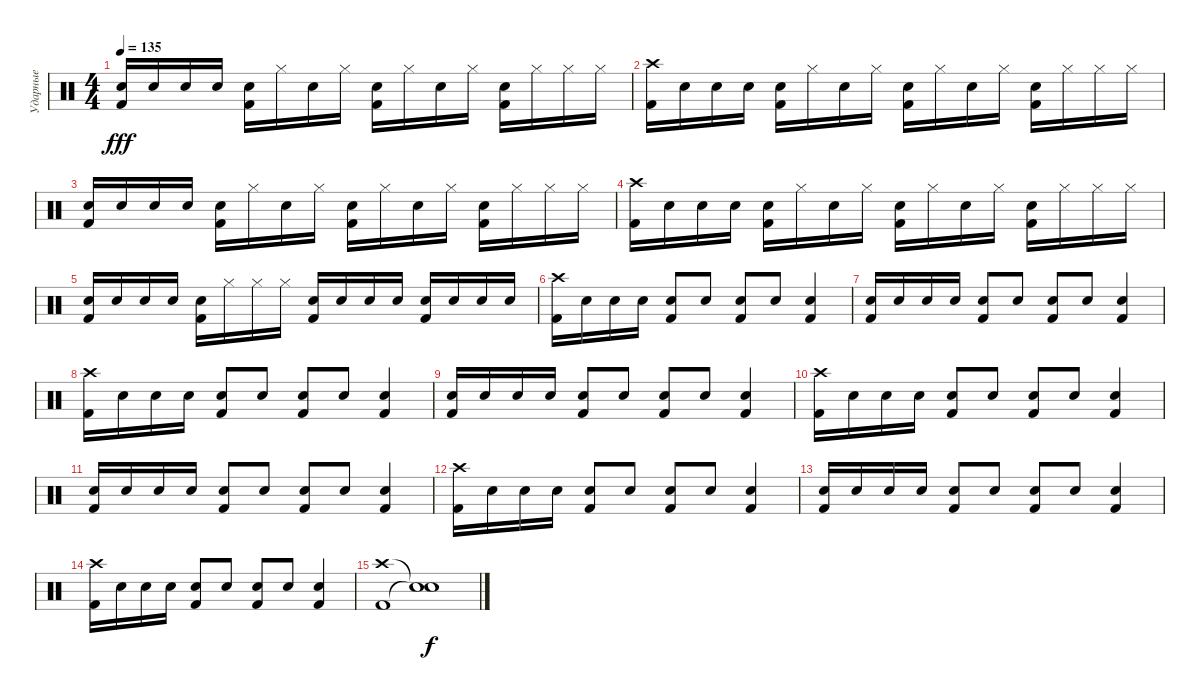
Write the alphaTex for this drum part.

\track ("Ударные" "Ударные") {instrument percussion}
\staff {score}
\articulation defaults
\ts (4 4)
\tempo 135
\clef neutral
\ks c
("Snare (hit) 2" "Kick (hit) 2").16{dy fff} "Snare (hit) 2".16 "Snare (hit) 2".16 "Snare (hit) 2".16 ("Snare (hit) 2" "Kick (hit) 2").16 "Hi-Hat (closed)".16 "Snare (hit) 2".16 "Hi-Hat (closed)".16 ("Snare (hit) 2" "Kick (hit) 2").16 "Hi-Hat (closed)".16 "Snare (hit) 2".16 "Hi-Hat (closed)".16 ("Snare (hit) 2" "Kick (hit) 2").16 "Hi-Hat (closed)".16 "Hi-Hat (closed)".16 "Hi-Hat (closed)".16 |
("Crash high (hit)" "Kick (hit) 2").16 "Snare (hit) 2".16 "Snare (hit) 2".16 "Snare (hit) 2".16 ("Snare (hit) 2" "Kick (hit) 2").16 "Hi-Hat (closed)".16 "Snare (hit) 2".16 "Hi-Hat (closed)".16 ("Snare (hit) 2" "Kick (hit) 2").16 "Hi-Hat (closed)".16 "Snare (hit) 2".16 "Hi-Hat (closed)".16 ("Snare (hit) 2" "Kick (hit) 2").16 "Hi-Hat (closed)".16 "Hi-Hat (closed)".16 "Hi-Hat (closed)".16 |
("Snare (hit) 2" "Kick (hit) 2").16 "Snare (hit) 2".16 "Snare (hit) 2".16 "Snare (hit) 2".16 ("Snare (hit) 2" "Kick (hit) 2").16 "Hi-Hat (closed)".16 "Snare (hit) 2".16 "Hi-Hat (closed)".16 ("Snare (hit) 2" "Kick (hit) 2").16 "Hi-Hat (closed)".16 "Snare (hit) 2".16 "Hi-Hat (closed)".16 ("Snare (hit) 2" "Kick (hit) 2").16 "Hi-Hat (closed)".16 "Hi-Hat (closed)".16 "Hi-Hat (closed)".16 |
("Crash high (hit)" "Kick (hit) 2").16 "Snare (hit) 2".16 "Snare (hit) 2".16 "Snare (hit) 2".16 ("Snare (hit) 2" "Kick (hit) 2").16 "Hi-Hat (closed)".16 "Snare (hit) 2".16 "Hi-Hat (closed)".16 ("Snare (hit) 2" "Kick (hit) 2").16 "Hi-Hat (closed)".16 "Snare (hit) 2".16 "Hi-Hat (closed)".16 ("Snare (hit) 2" "Kick (hit) 2").16 "Hi-Hat (closed)".16 "Hi-Hat (closed)".16 "Hi-Hat (closed)".16 |
("Snare (hit) 2" "Kick (hit) 2").16 "Snare (hit) 2".16 "Snare (hit) 2".16 "Snare (hit) 2".16 ("Snare (hit) 2" "Kick (hit) 2").16 "Hi-Hat (closed)".16 "Hi-Hat (closed)".16 "Hi-Hat (closed)".16 ("Snare (hit) 2" "Kick (hit) 2").16 "Snare (hit) 2".16 "Snare (hit) 2".16 "Snare (hit) 2".16 ("Snare (hit) 2" "Kick (hit) 2").16 "Snare (hit) 2".16 "Snare (hit) 2".16 "Snare (hit) 2".16 |
("Crash high (hit)" "Kick (hit) 2").16 "Snare (hit) 2".16 "Snare (hit) 2".16 "Snare (hit) 2".16 ("Snare (hit) 2" "Kick (hit) 2").8 "Snare (hit) 2".8 ("Snare (hit) 2" "Kick (hit) 2").8 "Snare (hit) 2".8 ("Snare (hit) 2" "Kick (hit) 2").4 |
("Snare (hit) 2" "Kick (hit) 2").16 "Snare (hit) 2".16 "Snare (hit) 2".16 "Snare (hit) 2".16 ("Snare (hit) 2" "Kick (hit) 2").8 "Snare (hit) 2".8 ("Snare (hit) 2" "Kick (hit) 2").8 "Snare (hit) 2".8 ("Snare (hit) 2" "Kick (hit) 2").4 |
("Crash high (hit)" "Kick (hit) 2").16 "Snare (hit) 2".16 "Snare (hit) 2".16 "Snare (hit) 2".16 ("Snare (hit) 2" "Kick (hit) 2").8 "Snare (hit) 2".8 ("Snare (hit) 2" "Kick (hit) 2").8 "Snare (hit) 2".8 ("Snare (hit) 2" "Kick (hit) 2").4 |
("Snare (hit) 2" "Kick (hit) 2").16 "Snare (hit) 2".16 "Snare (hit) 2".16 "Snare (hit) 2".16 ("Snare (hit) 2" "Kick (hit) 2").8 "Snare (hit) 2".8 ("Snare (hit) 2" "Kick (hit) 2").8 "Snare (hit) 2".8 ("Snare (hit) 2" "Kick (hit) 2").4 |
("Crash high (hit)" "Kick (hit) 2").16 "Snare (hit) 2".16 "Snare (hit) 2".16 "Snare (hit) 2".16 ("Snare (hit) 2" "Kick (hit) 2").8 "Snare (hit) 2".8 ("Snare (hit) 2" "Kick (hit) 2").8 "Snare (hit) 2".8 ("Snare (hit) 2" "Kick (hit) 2").4 |
("Snare (hit) 2" "Kick (hit) 2").16 "Snare (hit) 2".16 "Snare (hit) 2".16 "Snare (hit) 2".16 ("Snare (hit) 2" "Kick (hit) 2").8 "Snare (hit) 2".8 ("Snare (hit) 2" "Kick (hit) 2").8 "Snare (hit) 2".8 ("Snare (hit) 2" "Kick (hit) 2").4 |
("Crash high (hit)" "Kick (hit) 2").16 "Snare (hit) 2".16 "Snare (hit) 2".16 "Snare (hit) 2".16 ("Snare (hit) 2" "Kick (hit) 2").8 "Snare (hit) 2".8 ("Snare (hit) 2" "Kick (hit) 2").8 "Snare (hit) 2".8 ("Snare (hit) 2" "Kick (hit) 2").4 |
("Snare (hit) 2" "Kick (hit) 2").16 "Snare (hit) 2".16 "Snare (hit) 2".16 "Snare (hit) 2".16 ("Snare (hit) 2" "Kick (hit) 2").8 "Snare (hit) 2".8 ("Snare (hit) 2" "Kick (hit) 2").8 "Snare (hit) 2".8 ("Snare (hit) 2" "Kick (hit) 2").4 |
("Crash high (hit)" "Kick (hit) 2").16 "Snare (hit) 2".16 "Snare (hit) 2".16 "Snare (hit) 2".16 ("Snare (hit) 2" "Kick (hit) 2").8 "Snare (hit) 2".8 ("Snare (hit) 2" "Kick (hit) 2").8 "Snare (hit) 2".8 ("Snare (hit) 2" "Kick (hit) 2").4 |
("Crash high (hit)" "Kick (hit) 2").1 ("Snare (hit)"{t} "Snare (hit)"{t}).1{dy f}
